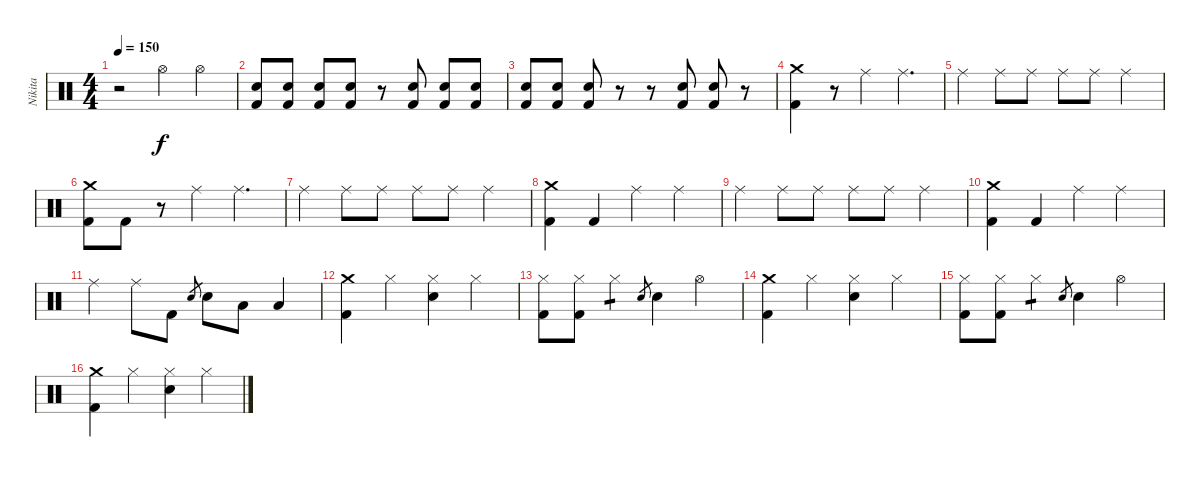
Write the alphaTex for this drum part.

\track ("Nikita" "Nikita") {instrument percussion}
\staff {score}
\articulation defaults
\ts (4 4)
\tempo 150
\clef neutral
\ks c
r.2{dy f} "Hi-Hat (open)".4 "Hi-Hat (open)".4 |
("Electric Snare (hit)" "Kick (hit) 2").8 ("Electric Snare (hit)" "Kick (hit) 2").8 ("Electric Snare (hit)" "Kick (hit) 2").8 ("Electric Snare (hit)" "Kick (hit) 2").8 r.8 ("Electric Snare (hit)" "Kick (hit) 2").8 ("Electric Snare (hit)" "Kick (hit) 2").8 ("Electric Snare (hit)" "Kick (hit) 2").8 |
("Electric Snare (hit)" "Kick (hit) 2").8 ("Electric Snare (hit)" "Kick (hit) 2").8 ("Electric Snare (hit)" "Kick (hit) 2").8 r.8 r.8 ("Electric Snare (hit)" "Kick (hit) 2").8 ("Electric Snare (hit)" "Kick (hit) 2").8 r.8 |
("Crash medium (hit)" "Kick (hit) 2").4 r.8 "Ride (middle)".4 "Ride (middle)".4{d} |
"Ride (middle)".4 "Ride (middle)".8 "Ride (middle)".8 "Ride (middle)".8 "Ride (middle)".8 "Ride (middle)".4 |
("Crash medium (hit)" "Kick (hit) 2").8 "Kick (hit) 2".8 r.8 "Ride (middle)".4 "Ride (middle)".4{d} |
"Ride (middle)".4 "Ride (middle)".8 "Ride (middle)".8 "Ride (middle)".8 "Ride (middle)".8 "Ride (middle)".4 |
("Crash medium (hit)" "Kick (hit) 2").4 "Kick (hit) 2".4 "Ride (middle)".4 "Ride (middle)".4 |
"Ride (middle)".4 "Ride (middle)".8 "Ride (middle)".8 "Ride (middle)".8 "Ride (middle)".8 "Ride (middle)".4 |
("Crash medium (hit)" "Kick (hit) 2").4 "Kick (hit) 2".4 "Ride (middle)".4 "Ride (middle)".4 |
"Ride (middle)".4 "Ride (middle)".8 "Kick (hit) 2".8 "Electric Snare (hit)".8{gr} "Electric Snare (hit)".8 "Low Tom (hit)".8 "Low Floor Tom (hit)".4 |
("Crash medium (hit)" "Kick (hit) 2").4 "Hi-Hat (closed)".4 ("Hi-Hat (closed)" "Electric Snare (hit)").4 "Hi-Hat (closed)".4 |
("Hi-Hat (closed)" "Kick (hit) 2").8 ("Hi-Hat (closed)" "Kick (hit) 2").8 "Hi-Hat (closed)".4{tp 1} "Electric Snare (hit)".8{gr} "Electric Snare (hit)".4 "Hi-Hat (open)".4 |
("Crash medium (hit)" "Kick (hit) 2").4 "Hi-Hat (closed)".4 ("Hi-Hat (closed)" "Electric Snare (hit)").4 "Hi-Hat (closed)".4 |
("Hi-Hat (closed)" "Kick (hit) 2").8 ("Hi-Hat (closed)" "Kick (hit) 2").8 "Hi-Hat (closed)".4{tp 1} "Electric Snare (hit)".8{gr} "Electric Snare (hit)".4 "Hi-Hat (open)".4 |
("Crash medium (hit)" "Kick (hit) 2").4 "Hi-Hat (closed)".4 ("Hi-Hat (closed)" "Electric Snare (hit)").4 "Hi-Hat (closed)".4
